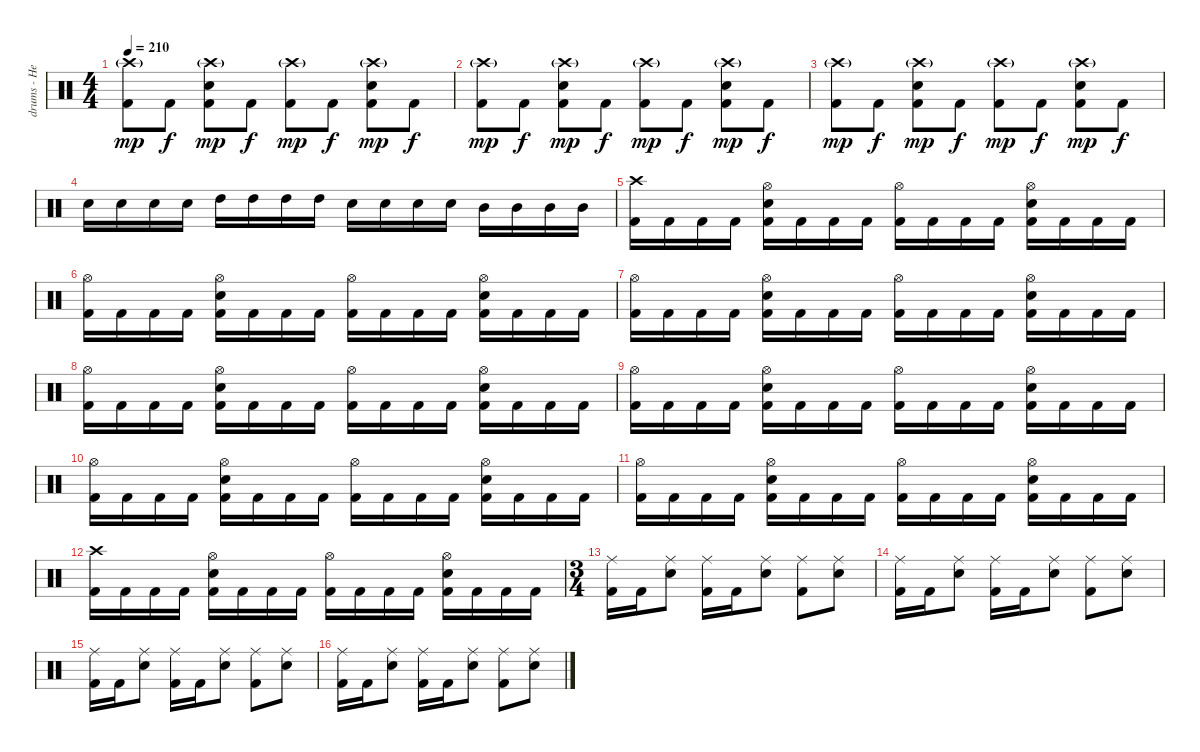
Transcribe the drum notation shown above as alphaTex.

\track ("drums - Heikki" "drums - He") {instrument percussion}
\staff {score}
\articulation defaults
\ts (4 4)
\tempo 210
\clef neutral
\ks c
("Crash high (hit)"{g} "Kick (hit) 2").8{dy mp} "Kick (hit) 2".8{dy f} ("Crash high (hit)"{g} "Snare (hit) 2" "Kick (hit) 2").8{dy mp} "Kick (hit) 2".8{dy f} ("Crash high (hit)"{g} "Kick (hit) 2").8{dy mp} "Kick (hit) 2".8{dy f} ("Crash high (hit)"{g} "Snare (hit) 2" "Kick (hit) 2").8{dy mp} "Kick (hit) 2".8{dy f} |
("Crash high (hit)"{g} "Kick (hit) 2").8{dy mp} "Kick (hit) 2".8{dy f} ("Crash high (hit)"{g} "Snare (hit) 2" "Kick (hit) 2").8{dy mp} "Kick (hit) 2".8{dy f} ("Crash high (hit)"{g} "Kick (hit) 2").8{dy mp} "Kick (hit) 2".8{dy f} ("Crash high (hit)"{g} "Snare (hit) 2" "Kick (hit) 2").8{dy mp} "Kick (hit) 2".8{dy f} |
("Crash high (hit)"{g} "Kick (hit) 2").8{dy mp} "Kick (hit) 2".8{dy f} ("Crash high (hit)"{g} "Snare (hit) 2" "Kick (hit) 2").8{dy mp} "Kick (hit) 2".8{dy f} ("Crash high (hit)"{g} "Kick (hit) 2").8{dy mp} "Kick (hit) 2".8{dy f} ("Crash high (hit)"{g} "Snare (hit) 2" "Kick (hit) 2").8{dy mp} "Kick (hit) 2".8{dy f} |
"Snare (hit) 2".16 "Snare (hit) 2".16 "Snare (hit) 2".16 "Snare (hit) 2".16 "High Tom (hit)".16 "High Tom (hit)".16 "High Tom (hit)".16 "High Tom (hit)".16 "Snare (hit) 2".16 "Snare (hit) 2".16 "Snare (hit) 2".16 "Snare (hit) 2".16 "Mid Tom (hit)".16 "Mid Tom (hit)".16 "Mid Tom (hit)".16 "Mid Tom (hit)".16 |
("Crash high (hit)" "Kick (hit) 2").16 "Kick (hit) 2".16 "Kick (hit) 2".16 "Kick (hit) 2".16 ("Hi-Hat (open)" "Snare (hit) 2" "Kick (hit) 2").16 "Kick (hit) 2".16 "Kick (hit) 2".16 "Kick (hit) 2".16 ("Hi-Hat (open)" "Kick (hit) 2").16 "Kick (hit) 2".16 "Kick (hit) 2".16 "Kick (hit) 2".16 ("Hi-Hat (open)" "Snare (hit) 2" "Kick (hit) 2").16 "Kick (hit) 2".16 "Kick (hit) 2".16 "Kick (hit) 2".16 |
("Hi-Hat (open)" "Kick (hit) 2").16 "Kick (hit) 2".16 "Kick (hit) 2".16 "Kick (hit) 2".16 ("Hi-Hat (open)" "Snare (hit) 2" "Kick (hit) 2").16 "Kick (hit) 2".16 "Kick (hit) 2".16 "Kick (hit) 2".16 ("Hi-Hat (open)" "Kick (hit) 2").16 "Kick (hit) 2".16 "Kick (hit) 2".16 "Kick (hit) 2".16 ("Hi-Hat (open)" "Snare (hit) 2" "Kick (hit) 2").16 "Kick (hit) 2".16 "Kick (hit) 2".16 "Kick (hit) 2".16 |
("Hi-Hat (open)" "Kick (hit) 2").16 "Kick (hit) 2".16 "Kick (hit) 2".16 "Kick (hit) 2".16 ("Hi-Hat (open)" "Snare (hit) 2" "Kick (hit) 2").16 "Kick (hit) 2".16 "Kick (hit) 2".16 "Kick (hit) 2".16 ("Hi-Hat (open)" "Kick (hit) 2").16 "Kick (hit) 2".16 "Kick (hit) 2".16 "Kick (hit) 2".16 ("Hi-Hat (open)" "Snare (hit) 2" "Kick (hit) 2").16 "Kick (hit) 2".16 "Kick (hit) 2".16 "Kick (hit) 2".16 |
("Hi-Hat (open)" "Kick (hit) 2").16 "Kick (hit) 2".16 "Kick (hit) 2".16 "Kick (hit) 2".16 ("Hi-Hat (open)" "Snare (hit) 2" "Kick (hit) 2").16 "Kick (hit) 2".16 "Kick (hit) 2".16 "Kick (hit) 2".16 ("Hi-Hat (open)" "Kick (hit) 2").16 "Kick (hit) 2".16 "Kick (hit) 2".16 "Kick (hit) 2".16 ("Hi-Hat (open)" "Snare (hit) 2" "Kick (hit) 2").16 "Kick (hit) 2".16 "Kick (hit) 2".16 "Kick (hit) 2".16 |
("Hi-Hat (open)" "Kick (hit) 2").16 "Kick (hit) 2".16 "Kick (hit) 2".16 "Kick (hit) 2".16 ("Hi-Hat (open)" "Snare (hit) 2" "Kick (hit) 2").16 "Kick (hit) 2".16 "Kick (hit) 2".16 "Kick (hit) 2".16 ("Hi-Hat (open)" "Kick (hit) 2").16 "Kick (hit) 2".16 "Kick (hit) 2".16 "Kick (hit) 2".16 ("Hi-Hat (open)" "Snare (hit) 2" "Kick (hit) 2").16 "Kick (hit) 2".16 "Kick (hit) 2".16 "Kick (hit) 2".16 |
("Hi-Hat (open)" "Kick (hit) 2").16 "Kick (hit) 2".16 "Kick (hit) 2".16 "Kick (hit) 2".16 ("Hi-Hat (open)" "Snare (hit) 2" "Kick (hit) 2").16 "Kick (hit) 2".16 "Kick (hit) 2".16 "Kick (hit) 2".16 ("Hi-Hat (open)" "Kick (hit) 2").16 "Kick (hit) 2".16 "Kick (hit) 2".16 "Kick (hit) 2".16 ("Hi-Hat (open)" "Snare (hit) 2" "Kick (hit) 2").16 "Kick (hit) 2".16 "Kick (hit) 2".16 "Kick (hit) 2".16 |
("Hi-Hat (open)" "Kick (hit) 2").16 "Kick (hit) 2".16 "Kick (hit) 2".16 "Kick (hit) 2".16 ("Hi-Hat (open)" "Snare (hit) 2" "Kick (hit) 2").16 "Kick (hit) 2".16 "Kick (hit) 2".16 "Kick (hit) 2".16 ("Hi-Hat (open)" "Kick (hit) 2").16 "Kick (hit) 2".16 "Kick (hit) 2".16 "Kick (hit) 2".16 ("Hi-Hat (open)" "Snare (hit) 2" "Kick (hit) 2").16 "Kick (hit) 2".16 "Kick (hit) 2".16 "Kick (hit) 2".16 |
("Crash high (hit)" "Kick (hit) 2").16 "Kick (hit) 2".16 "Kick (hit) 2".16 "Kick (hit) 2".16 ("Hi-Hat (open)" "Snare (hit) 2" "Kick (hit) 2").16 "Kick (hit) 2".16 "Kick (hit) 2".16 "Kick (hit) 2".16 ("Hi-Hat (open)" "Kick (hit) 2").16 "Kick (hit) 2".16 "Kick (hit) 2".16 "Kick (hit) 2".16 ("Hi-Hat (open)" "Snare (hit) 2" "Kick (hit) 2").16 "Kick (hit) 2".16 "Kick (hit) 2".16 "Kick (hit) 2".16 |
\ts (3 4)
("Ride (middle)" "Kick (hit) 2").16 "Kick (hit) 2".16 ("Ride (middle)" "Snare (hit) 2").8 ("Ride (middle)" "Kick (hit) 2").16 "Kick (hit) 2".16 ("Ride (middle)" "Snare (hit) 2").8 ("Ride (middle)" "Kick (hit) 2").8 ("Ride (middle)" "Snare (hit) 2").8 |
("Ride (middle)" "Kick (hit) 2").16 "Kick (hit) 2".16 ("Ride (middle)" "Snare (hit) 2").8 ("Ride (middle)" "Kick (hit) 2").16 "Kick (hit) 2".16 ("Ride (middle)" "Snare (hit) 2").8 ("Ride (middle)" "Kick (hit) 2").8 ("Ride (middle)" "Snare (hit) 2").8 |
("Ride (middle)" "Kick (hit) 2").16 "Kick (hit) 2".16 ("Ride (middle)" "Snare (hit) 2").8 ("Ride (middle)" "Kick (hit) 2").16 "Kick (hit) 2".16 ("Ride (middle)" "Snare (hit) 2").8 ("Ride (middle)" "Kick (hit) 2").8 ("Ride (middle)" "Snare (hit) 2").8 |
("Ride (middle)" "Kick (hit) 2").16 "Kick (hit) 2".16 ("Ride (middle)" "Snare (hit) 2").8 ("Ride (middle)" "Kick (hit) 2").16 "Kick (hit) 2".16 ("Ride (middle)" "Snare (hit) 2").8 ("Ride (middle)" "Kick (hit) 2").8 ("Ride (middle)" "Snare (hit) 2").8
